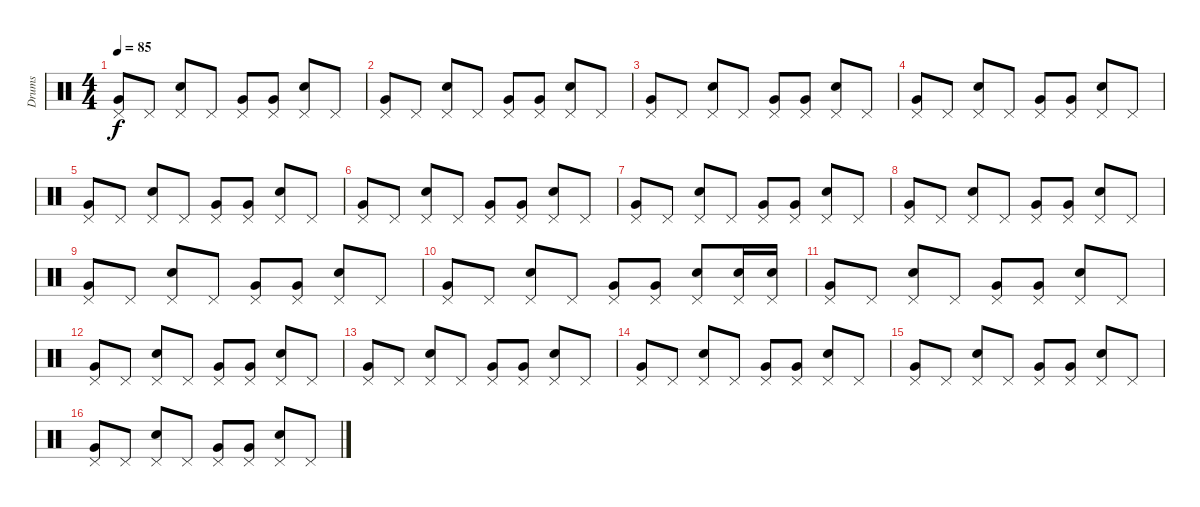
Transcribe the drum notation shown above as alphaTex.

\track ("Drums" "Drums") {instrument percussion}
\staff {score}
\articulation defaults
\ts (4 4)
\tempo 85
\clef neutral
\ks c
("Pedal Hi-Hat (hit)" "Very Low Tom (hit)").8{dy f} "Pedal Hi-Hat (hit)".8 ("Pedal Hi-Hat (hit)" "Snare (hit) 2").8 "Pedal Hi-Hat (hit)".8 ("Pedal Hi-Hat (hit)" "Very Low Tom (hit)").8 ("Pedal Hi-Hat (hit)" "Very Low Tom (hit)").8 ("Pedal Hi-Hat (hit)" "Snare (hit) 2").8 "Pedal Hi-Hat (hit)".8 |
("Pedal Hi-Hat (hit)" "Very Low Tom (hit)").8 "Pedal Hi-Hat (hit)".8 ("Pedal Hi-Hat (hit)" "Snare (hit) 2").8 "Pedal Hi-Hat (hit)".8 ("Pedal Hi-Hat (hit)" "Very Low Tom (hit)").8 ("Pedal Hi-Hat (hit)" "Very Low Tom (hit)").8 ("Pedal Hi-Hat (hit)" "Snare (hit) 2").8 "Pedal Hi-Hat (hit)".8 |
("Pedal Hi-Hat (hit)" "Very Low Tom (hit)").8 "Pedal Hi-Hat (hit)".8 ("Pedal Hi-Hat (hit)" "Snare (hit) 2").8 "Pedal Hi-Hat (hit)".8 ("Pedal Hi-Hat (hit)" "Very Low Tom (hit)").8 ("Pedal Hi-Hat (hit)" "Very Low Tom (hit)").8 ("Pedal Hi-Hat (hit)" "Snare (hit) 2").8 "Pedal Hi-Hat (hit)".8 |
("Pedal Hi-Hat (hit)" "Very Low Tom (hit)").8 "Pedal Hi-Hat (hit)".8 ("Pedal Hi-Hat (hit)" "Snare (hit) 2").8 "Pedal Hi-Hat (hit)".8 ("Pedal Hi-Hat (hit)" "Very Low Tom (hit)").8 ("Pedal Hi-Hat (hit)" "Very Low Tom (hit)").8 ("Pedal Hi-Hat (hit)" "Snare (hit) 2").8 "Pedal Hi-Hat (hit)".8 |
("Pedal Hi-Hat (hit)" "Very Low Tom (hit)").8 "Pedal Hi-Hat (hit)".8 ("Pedal Hi-Hat (hit)" "Snare (hit) 2").8 "Pedal Hi-Hat (hit)".8 ("Pedal Hi-Hat (hit)" "Very Low Tom (hit)").8 ("Pedal Hi-Hat (hit)" "Very Low Tom (hit)").8 ("Pedal Hi-Hat (hit)" "Snare (hit) 2").8 "Pedal Hi-Hat (hit)".8 |
("Pedal Hi-Hat (hit)" "Very Low Tom (hit)").8 "Pedal Hi-Hat (hit)".8 ("Pedal Hi-Hat (hit)" "Snare (hit) 2").8 "Pedal Hi-Hat (hit)".8 ("Pedal Hi-Hat (hit)" "Very Low Tom (hit)").8 ("Pedal Hi-Hat (hit)" "Very Low Tom (hit)").8 ("Pedal Hi-Hat (hit)" "Snare (hit) 2").8 "Pedal Hi-Hat (hit)".8 |
("Pedal Hi-Hat (hit)" "Very Low Tom (hit)").8 "Pedal Hi-Hat (hit)".8 ("Pedal Hi-Hat (hit)" "Snare (hit) 2").8 "Pedal Hi-Hat (hit)".8 ("Pedal Hi-Hat (hit)" "Very Low Tom (hit)").8 ("Pedal Hi-Hat (hit)" "Very Low Tom (hit)").8 ("Pedal Hi-Hat (hit)" "Snare (hit) 2").8 "Pedal Hi-Hat (hit)".8 |
("Pedal Hi-Hat (hit)" "Very Low Tom (hit)").8 "Pedal Hi-Hat (hit)".8 ("Pedal Hi-Hat (hit)" "Snare (hit) 2").8 "Pedal Hi-Hat (hit)".8 ("Pedal Hi-Hat (hit)" "Very Low Tom (hit)").8 ("Pedal Hi-Hat (hit)" "Very Low Tom (hit)").8 ("Pedal Hi-Hat (hit)" "Snare (hit) 2").8 "Pedal Hi-Hat (hit)".8 |
("Pedal Hi-Hat (hit)" "Very Low Tom (hit)").8 "Pedal Hi-Hat (hit)".8 ("Pedal Hi-Hat (hit)" "Snare (hit) 2").8 "Pedal Hi-Hat (hit)".8 ("Pedal Hi-Hat (hit)" "Very Low Tom (hit)").8 ("Pedal Hi-Hat (hit)" "Very Low Tom (hit)").8 ("Pedal Hi-Hat (hit)" "Snare (hit) 2").8 "Pedal Hi-Hat (hit)".8 |
("Pedal Hi-Hat (hit)" "Very Low Tom (hit)").8 "Pedal Hi-Hat (hit)".8 ("Pedal Hi-Hat (hit)" "Snare (hit) 2").8 "Pedal Hi-Hat (hit)".8 ("Pedal Hi-Hat (hit)" "Very Low Tom (hit)").8 ("Pedal Hi-Hat (hit)" "Very Low Tom (hit)").8 ("Pedal Hi-Hat (hit)" "Snare (hit) 2").8 ("Pedal Hi-Hat (hit)" "Electric Snare (hit)").16 ("Pedal Hi-Hat (hit)" "Electric Snare (hit)").16 |
("Pedal Hi-Hat (hit)" "Very Low Tom (hit)").8 "Pedal Hi-Hat (hit)".8 ("Pedal Hi-Hat (hit)" "Snare (hit) 2").8 "Pedal Hi-Hat (hit)".8 ("Pedal Hi-Hat (hit)" "Very Low Tom (hit)").8 ("Pedal Hi-Hat (hit)" "Very Low Tom (hit)").8 ("Pedal Hi-Hat (hit)" "Snare (hit) 2").8 "Pedal Hi-Hat (hit)".8 |
("Pedal Hi-Hat (hit)" "Very Low Tom (hit)").8 "Pedal Hi-Hat (hit)".8 ("Pedal Hi-Hat (hit)" "Snare (hit) 2").8 "Pedal Hi-Hat (hit)".8 ("Pedal Hi-Hat (hit)" "Very Low Tom (hit)").8 ("Pedal Hi-Hat (hit)" "Very Low Tom (hit)").8 ("Pedal Hi-Hat (hit)" "Snare (hit) 2").8 "Pedal Hi-Hat (hit)".8 |
("Pedal Hi-Hat (hit)" "Very Low Tom (hit)").8 "Pedal Hi-Hat (hit)".8 ("Pedal Hi-Hat (hit)" "Snare (hit) 2").8 "Pedal Hi-Hat (hit)".8 ("Pedal Hi-Hat (hit)" "Very Low Tom (hit)").8 ("Pedal Hi-Hat (hit)" "Very Low Tom (hit)").8 ("Pedal Hi-Hat (hit)" "Snare (hit) 2").8 "Pedal Hi-Hat (hit)".8 |
("Pedal Hi-Hat (hit)" "Very Low Tom (hit)").8 "Pedal Hi-Hat (hit)".8 ("Pedal Hi-Hat (hit)" "Snare (hit) 2").8 "Pedal Hi-Hat (hit)".8 ("Pedal Hi-Hat (hit)" "Very Low Tom (hit)").8 ("Pedal Hi-Hat (hit)" "Very Low Tom (hit)").8 ("Pedal Hi-Hat (hit)" "Snare (hit) 2").8 "Pedal Hi-Hat (hit)".8 |
("Pedal Hi-Hat (hit)" "Very Low Tom (hit)").8 "Pedal Hi-Hat (hit)".8 ("Pedal Hi-Hat (hit)" "Snare (hit) 2").8 "Pedal Hi-Hat (hit)".8 ("Pedal Hi-Hat (hit)" "Very Low Tom (hit)").8 ("Pedal Hi-Hat (hit)" "Very Low Tom (hit)").8 ("Pedal Hi-Hat (hit)" "Snare (hit) 2").8 "Pedal Hi-Hat (hit)".8 |
("Pedal Hi-Hat (hit)" "Very Low Tom (hit)").8 "Pedal Hi-Hat (hit)".8 ("Pedal Hi-Hat (hit)" "Snare (hit) 2").8 "Pedal Hi-Hat (hit)".8 ("Pedal Hi-Hat (hit)" "Very Low Tom (hit)").8 ("Pedal Hi-Hat (hit)" "Very Low Tom (hit)").8 ("Pedal Hi-Hat (hit)" "Snare (hit) 2").8 "Pedal Hi-Hat (hit)".8
